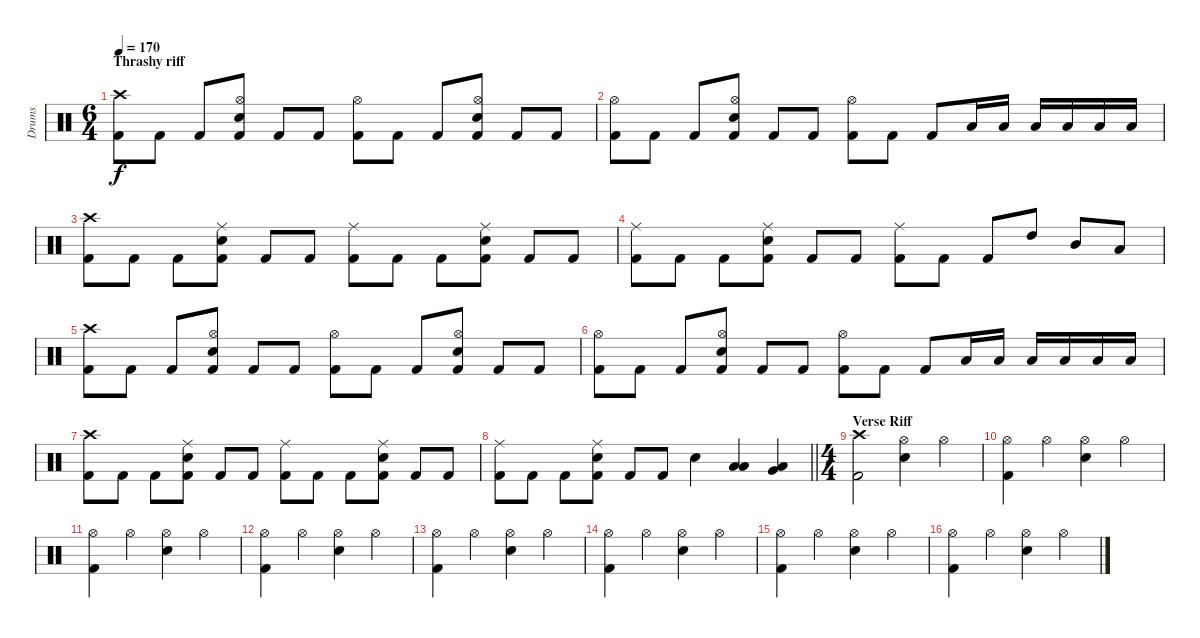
\track ("Drums" "Drums") {instrument percussion}
\staff {score}
\articulation defaults
\ts (6 4)
\section ("" "Thrashy riff")
\tempo 170
\clef neutral
\ks c
("Crash high (hit)" "Kick (hit) 2").8{dy f} "Kick (hit) 2".8 "Kick (hit) 2".8 ("Hi-Hat (open)" "Electric Snare (hit)" "Kick (hit) 2").8 "Kick (hit) 2".8 "Kick (hit) 2".8 ("Hi-Hat (open)" "Kick (hit) 2").8 "Kick (hit) 2".8 "Kick (hit) 2".8 ("Hi-Hat (open)" "Electric Snare (hit)" "Kick (hit) 2").8 "Kick (hit) 2".8 "Kick (hit) 2".8 |
("Hi-Hat (open)" "Kick (hit) 2").8 "Kick (hit) 2".8 "Kick (hit) 2".8 ("Hi-Hat (open)" "Electric Snare (hit)" "Kick (hit) 2").8 "Kick (hit) 2".8 "Kick (hit) 2".8 ("Hi-Hat (open)" "Kick (hit) 2").8 "Kick (hit) 2".8 "Kick (hit) 2".8 "Low Tom (hit)".16 "Low Tom (hit)".16 "Low Tom (hit)".16 "Low Tom (hit)".16 "Low Tom (hit)".16 "Low Tom (hit)".16 |
("Crash high (hit)" "Kick (hit) 2").8 "Kick (hit) 2".8 "Kick (hit) 2".8 ("Ride (middle)" "Electric Snare (hit)" "Kick (hit) 2").8 "Kick (hit) 2".8 "Kick (hit) 2".8 ("Ride (middle)" "Kick (hit) 2").8 "Kick (hit) 2".8 "Kick (hit) 2".8 ("Ride (middle)" "Electric Snare (hit)" "Kick (hit) 2").8 "Kick (hit) 2".8 "Kick (hit) 2".8 |
("Ride (middle)" "Kick (hit) 2").8 "Kick (hit) 2".8 "Kick (hit) 2".8 ("Ride (middle)" "Electric Snare (hit)" "Kick (hit) 2").8 "Kick (hit) 2".8 "Kick (hit) 2".8 ("Ride (middle)" "Kick (hit) 2").8 "Kick (hit) 2".8 "Kick (hit) 2".8 "High Tom (hit)".8 "Mid Tom (hit)".8 "Low Tom (hit)".8 |
("Crash high (hit)" "Kick (hit) 2").8 "Kick (hit) 2".8 "Kick (hit) 2".8 ("Hi-Hat (open)" "Electric Snare (hit)" "Kick (hit) 2").8 "Kick (hit) 2".8 "Kick (hit) 2".8 ("Hi-Hat (open)" "Kick (hit) 2").8 "Kick (hit) 2".8 "Kick (hit) 2".8 ("Hi-Hat (open)" "Electric Snare (hit)" "Kick (hit) 2").8 "Kick (hit) 2".8 "Kick (hit) 2".8 |
("Hi-Hat (open)" "Kick (hit) 2").8 "Kick (hit) 2".8 "Kick (hit) 2".8 ("Hi-Hat (open)" "Electric Snare (hit)" "Kick (hit) 2").8 "Kick (hit) 2".8 "Kick (hit) 2".8 ("Hi-Hat (open)" "Kick (hit) 2").8 "Kick (hit) 2".8 "Kick (hit) 2".8 "Low Tom (hit)".16 "Low Tom (hit)".16 "Low Tom (hit)".16 "Low Tom (hit)".16 "Low Tom (hit)".16 "Low Tom (hit)".16 |
("Crash high (hit)" "Kick (hit) 2").8 "Kick (hit) 2".8 "Kick (hit) 2".8 ("Ride (middle)" "Electric Snare (hit)" "Kick (hit) 2").8 "Kick (hit) 2".8 "Kick (hit) 2".8 ("Ride (middle)" "Kick (hit) 2").8 "Kick (hit) 2".8 "Kick (hit) 2".8 ("Ride (middle)" "Electric Snare (hit)" "Kick (hit) 2").8 "Kick (hit) 2".8 "Kick (hit) 2".8 |
\barLineRight lightlight
("Ride (middle)" "Kick (hit) 2").8 "Kick (hit) 2".8 "Kick (hit) 2".8 ("Ride (middle)" "Electric Snare (hit)" "Kick (hit) 2").8 "Kick (hit) 2".8 "Kick (hit) 2".8 "Electric Snare (hit)".4 ("Low Tom (hit)" "Low Floor Tom (hit)").4 ("Very Low Tom (hit)" "Low Floor Tom (hit)").4 |
\ts (4 4)
\section ("" "Verse Riff")
("Crash high (hit)" "Kick (hit) 2").2 ("Hi-Hat (open)" "Electric Snare (hit)").4 "Hi-Hat (open)".4 |
("Hi-Hat (open)" "Kick (hit) 2").4 "Hi-Hat (open)".4 ("Hi-Hat (open)" "Electric Snare (hit)").4 "Hi-Hat (open)".4 |
("Hi-Hat (open)" "Kick (hit) 2").4 "Hi-Hat (open)".4 ("Hi-Hat (open)" "Electric Snare (hit)").4 "Hi-Hat (open)".4 |
("Hi-Hat (open)" "Kick (hit) 2").4 "Hi-Hat (open)".4 ("Hi-Hat (open)" "Electric Snare (hit)").4 "Hi-Hat (open)".4 |
("Hi-Hat (open)" "Kick (hit) 2").4 "Hi-Hat (open)".4 ("Hi-Hat (open)" "Electric Snare (hit)").4 "Hi-Hat (open)".4 |
("Hi-Hat (open)" "Kick (hit) 2").4 "Hi-Hat (open)".4 ("Hi-Hat (open)" "Electric Snare (hit)").4 "Hi-Hat (open)".4 |
("Hi-Hat (open)" "Kick (hit) 2").4 "Hi-Hat (open)".4 ("Hi-Hat (open)" "Electric Snare (hit)").4 "Hi-Hat (open)".4 |
("Hi-Hat (open)" "Kick (hit) 2").4 "Hi-Hat (open)".4 ("Hi-Hat (open)" "Electric Snare (hit)").4 "Hi-Hat (open)".4
